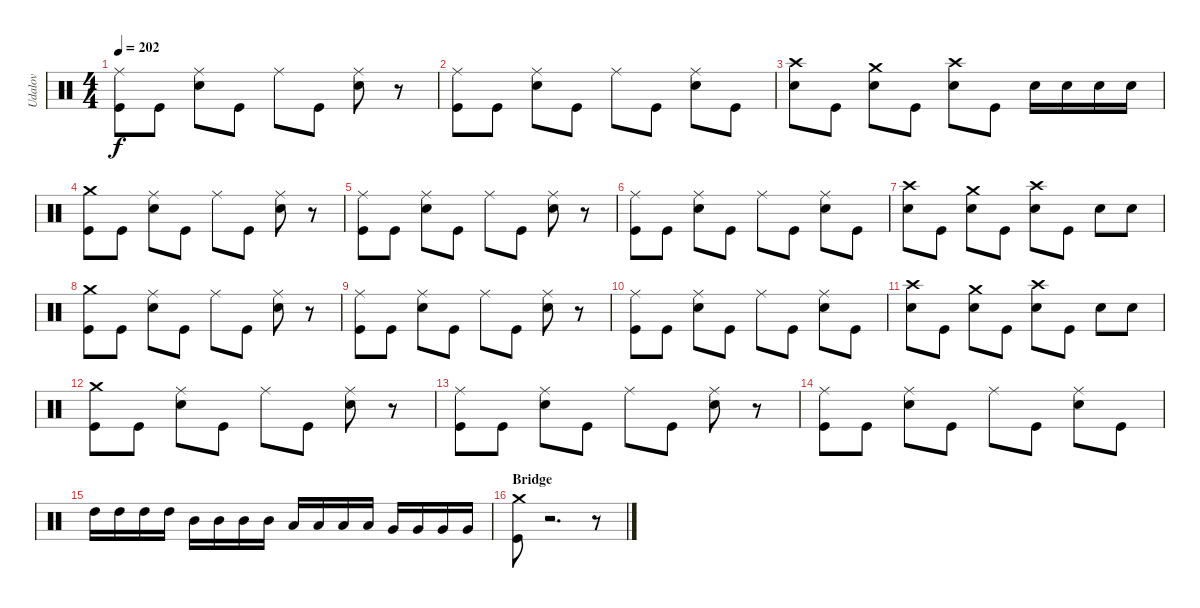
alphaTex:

\track ("Udalov" "Udalov") {instrument percussion}
\staff {score}
\articulation defaults
\ts (4 4)
\tempo 202
\clef neutral
\ks c
("Kick (hit)" "Ride (middle)").8{dy f} "Kick (hit)".8 ("Electric Snare (hit)" "Ride (middle)").8 "Kick (hit)".8 "Ride (middle)".8 "Kick (hit)".8 ("Electric Snare (hit)" "Ride (middle)").8 r.8 |
("Kick (hit)" "Ride (middle)").8 "Kick (hit)".8 ("Electric Snare (hit)" "Ride (middle)").8 "Kick (hit)".8 "Ride (middle)".8 "Kick (hit)".8 ("Electric Snare (hit)" "Ride (middle)").8 "Kick (hit)".8 |
("Electric Snare (hit)" "Crash high (hit)").8 "Kick (hit)".8 ("Electric Snare (hit)" "Crash medium (hit)").8 "Kick (hit)".8 ("Electric Snare (hit)" "Crash high (hit)").8 "Kick (hit)".8 "Electric Snare (hit)".16 "Electric Snare (hit)".16 "Electric Snare (hit)".16 "Electric Snare (hit)".16 |
("Kick (hit)" "Crash medium (hit)").8 "Kick (hit)".8 ("Electric Snare (hit)" "Ride (middle)").8 "Kick (hit)".8 "Ride (middle)".8 "Kick (hit)".8 ("Electric Snare (hit)" "Ride (middle)").8 r.8 |
("Kick (hit)" "Ride (middle)").8 "Kick (hit)".8 ("Electric Snare (hit)" "Ride (middle)").8 "Kick (hit)".8 "Ride (middle)".8 "Kick (hit)".8 ("Electric Snare (hit)" "Ride (middle)").8 r.8 |
("Kick (hit)" "Ride (middle)").8 "Kick (hit)".8 ("Electric Snare (hit)" "Ride (middle)").8 "Kick (hit)".8 "Ride (middle)".8 "Kick (hit)".8 ("Electric Snare (hit)" "Ride (middle)").8 "Kick (hit)".8 |
("Electric Snare (hit)" "Crash high (hit)").8 "Kick (hit)".8 ("Electric Snare (hit)" "Crash medium (hit)").8 "Kick (hit)".8 ("Electric Snare (hit)" "Crash high (hit)").8 "Kick (hit)".8 "Electric Snare (hit)".8 "Electric Snare (hit)".8 |
("Kick (hit)" "Crash medium (hit)").8 "Kick (hit)".8 ("Electric Snare (hit)" "Ride (middle)").8 "Kick (hit)".8 "Ride (middle)".8 "Kick (hit)".8 ("Electric Snare (hit)" "Ride (middle)").8 r.8 |
("Kick (hit)" "Ride (middle)").8 "Kick (hit)".8 ("Electric Snare (hit)" "Ride (middle)").8 "Kick (hit)".8 "Ride (middle)".8 "Kick (hit)".8 ("Electric Snare (hit)" "Ride (middle)").8 r.8 |
("Kick (hit)" "Ride (middle)").8 "Kick (hit)".8 ("Electric Snare (hit)" "Ride (middle)").8 "Kick (hit)".8 "Ride (middle)".8 "Kick (hit)".8 ("Electric Snare (hit)" "Ride (middle)").8 "Kick (hit)".8 |
("Electric Snare (hit)" "Crash high (hit)").8 "Kick (hit)".8 ("Electric Snare (hit)" "Crash medium (hit)").8 "Kick (hit)".8 ("Electric Snare (hit)" "Crash high (hit)").8 "Kick (hit)".8 "Electric Snare (hit)".8 "Electric Snare (hit)".8 |
("Kick (hit)" "Crash medium (hit)").8 "Kick (hit)".8 ("Electric Snare (hit)" "Ride (middle)").8 "Kick (hit)".8 "Ride (middle)".8 "Kick (hit)".8 ("Electric Snare (hit)" "Ride (middle)").8 r.8 |
("Kick (hit)" "Ride (middle)").8 "Kick (hit)".8 ("Electric Snare (hit)" "Ride (middle)").8 "Kick (hit)".8 "Ride (middle)".8 "Kick (hit)".8 ("Electric Snare (hit)" "Ride (middle)").8 r.8 |
("Kick (hit)" "Ride (middle)").8 "Kick (hit)".8 ("Electric Snare (hit)" "Ride (middle)").8 "Kick (hit)".8 "Ride (middle)".8 "Kick (hit)".8 ("Electric Snare (hit)" "Ride (middle)").8 "Kick (hit)".8 |
"High Tom (hit)".16 "High Tom (hit)".16 "High Tom (hit)".16 "High Tom (hit)".16 "Mid Tom (hit)".16 "Mid Tom (hit)".16 "Mid Tom (hit)".16 "Mid Tom (hit)".16 "Low Tom (hit)".16 "Low Tom (hit)".16 "Low Tom (hit)".16 "Low Tom (hit)".16 "Very Low Tom (hit)".16 "Very Low Tom (hit)".16 "Very Low Tom (hit)".16 "Very Low Tom (hit)".16 |
\section ("" "Bridge")
("Kick (hit)" "Crash medium (hit)").8 r.2{d} r.8
